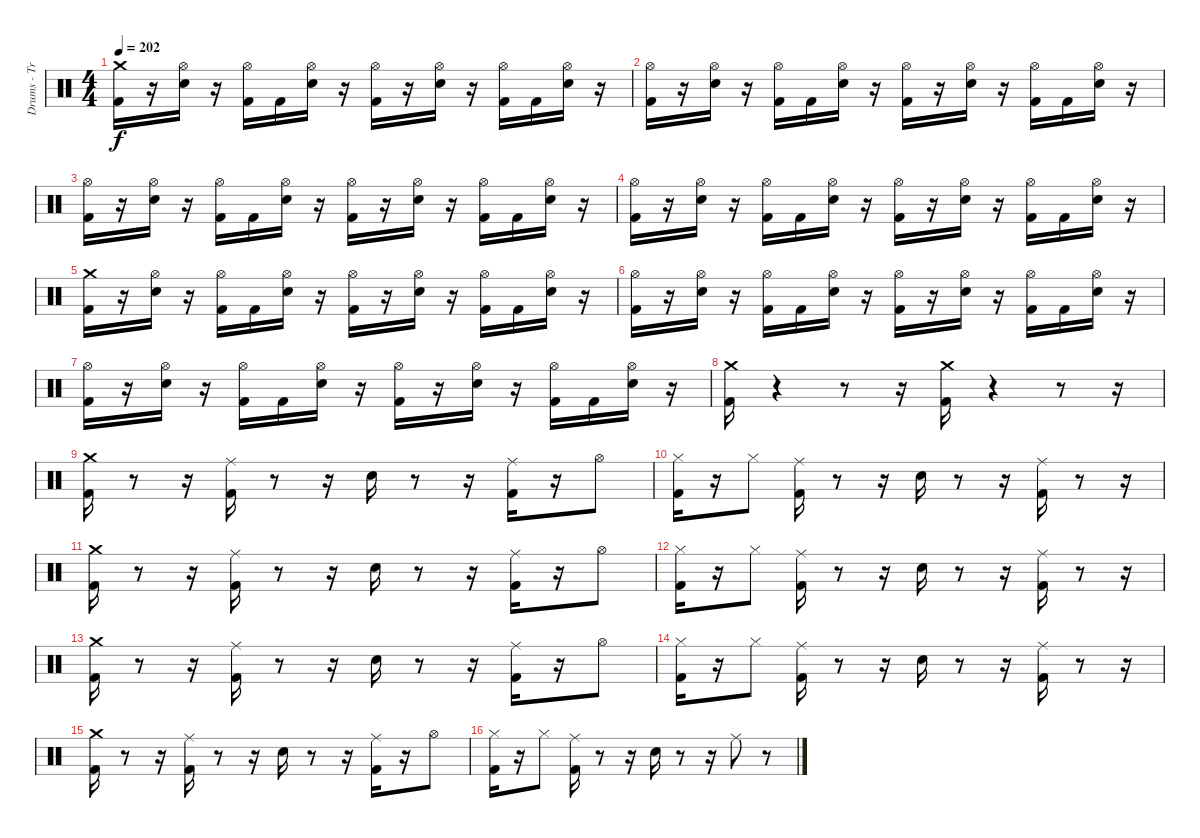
\track ("Drums - Travis Barker" "Drums - Tr") {instrument percussion}
\staff {score}
\articulation defaults
\ts (4 4)
\tempo 202
\clef neutral
\ks c
("Kick (hit) 2" "Crash medium (hit)").16{dy f} r.16 ("Electric Snare (hit)" "Hi-Hat (open)").16 r.16 ("Kick (hit) 2" "Hi-Hat (open)").16 "Kick (hit) 2".16 ("Electric Snare (hit)" "Hi-Hat (open)").16 r.16 ("Kick (hit) 2" "Hi-Hat (open)").16 r.16 ("Electric Snare (hit)" "Hi-Hat (open)").16 r.16 ("Kick (hit) 2" "Hi-Hat (open)").16 "Kick (hit) 2".16 ("Electric Snare (hit)" "Hi-Hat (open)").16 r.16 |
("Kick (hit) 2" "Hi-Hat (open)").16 r.16 ("Electric Snare (hit)" "Hi-Hat (open)").16 r.16 ("Kick (hit) 2" "Hi-Hat (open)").16 "Kick (hit) 2".16 ("Electric Snare (hit)" "Hi-Hat (open)").16 r.16 ("Kick (hit) 2" "Hi-Hat (open)").16 r.16 ("Electric Snare (hit)" "Hi-Hat (open)").16 r.16 ("Kick (hit) 2" "Hi-Hat (open)").16 "Kick (hit) 2".16 ("Electric Snare (hit)" "Hi-Hat (open)").16 r.16 |
("Kick (hit) 2" "Hi-Hat (open)").16 r.16 ("Electric Snare (hit)" "Hi-Hat (open)").16 r.16 ("Kick (hit) 2" "Hi-Hat (open)").16 "Kick (hit) 2".16 ("Electric Snare (hit)" "Hi-Hat (open)").16 r.16 ("Kick (hit) 2" "Hi-Hat (open)").16 r.16 ("Electric Snare (hit)" "Hi-Hat (open)").16 r.16 ("Kick (hit) 2" "Hi-Hat (open)").16 "Kick (hit) 2".16 ("Electric Snare (hit)" "Hi-Hat (open)").16 r.16 |
("Kick (hit) 2" "Hi-Hat (open)").16 r.16 ("Electric Snare (hit)" "Hi-Hat (open)").16 r.16 ("Kick (hit) 2" "Hi-Hat (open)").16 "Kick (hit) 2".16 ("Electric Snare (hit)" "Hi-Hat (open)").16 r.16 ("Kick (hit) 2" "Hi-Hat (open)").16 r.16 ("Electric Snare (hit)" "Hi-Hat (open)").16 r.16 ("Kick (hit) 2" "Hi-Hat (open)").16 "Kick (hit) 2".16 ("Electric Snare (hit)" "Hi-Hat (open)").16 r.16 |
("Kick (hit) 2" "Crash medium (hit)").16 r.16 ("Electric Snare (hit)" "Hi-Hat (open)").16 r.16 ("Kick (hit) 2" "Hi-Hat (open)").16 "Kick (hit) 2".16 ("Electric Snare (hit)" "Hi-Hat (open)").16 r.16 ("Kick (hit) 2" "Hi-Hat (open)").16 r.16 ("Electric Snare (hit)" "Hi-Hat (open)").16 r.16 ("Kick (hit) 2" "Hi-Hat (open)").16 "Kick (hit) 2".16 ("Electric Snare (hit)" "Hi-Hat (open)").16 r.16 |
("Kick (hit) 2" "Hi-Hat (open)").16 r.16 ("Electric Snare (hit)" "Hi-Hat (open)").16 r.16 ("Kick (hit) 2" "Hi-Hat (open)").16 "Kick (hit) 2".16 ("Electric Snare (hit)" "Hi-Hat (open)").16 r.16 ("Kick (hit) 2" "Hi-Hat (open)").16 r.16 ("Electric Snare (hit)" "Hi-Hat (open)").16 r.16 ("Kick (hit) 2" "Hi-Hat (open)").16 "Kick (hit) 2".16 ("Electric Snare (hit)" "Hi-Hat (open)").16 r.16 |
("Kick (hit) 2" "Hi-Hat (open)").16 r.16 ("Electric Snare (hit)" "Hi-Hat (open)").16 r.16 ("Kick (hit) 2" "Hi-Hat (open)").16 "Kick (hit) 2".16 ("Electric Snare (hit)" "Hi-Hat (open)").16 r.16 ("Kick (hit) 2" "Hi-Hat (open)").16 r.16 ("Electric Snare (hit)" "Hi-Hat (open)").16 r.16 ("Kick (hit) 2" "Hi-Hat (open)").16 "Kick (hit) 2".16 ("Electric Snare (hit)" "Hi-Hat (open)").16 r.16 |
("Kick (hit) 2" "Crash medium (hit)").16 r.4 r.8 r.16 ("Kick (hit) 2" "Crash medium (hit)").16 r.4 r.8 r.16 |
("Crash medium (hit)" "Kick (hit) 2").16 r.8 r.16 ("Ride (middle)" "Kick (hit) 2").16 r.8 r.16 "Electric Snare (hit)".16 r.8 r.16 ("Ride (middle)" "Kick (hit) 2").16 r.16 "Hi-Hat (open)".8 |
("Kick (hit) 2" "Hi-Hat (closed)").16 r.16 "Hi-Hat (closed)".8 ("Ride (middle)" "Kick (hit) 2").16 r.8 r.16 "Electric Snare (hit)".16 r.8 r.16 ("Ride (middle)" "Kick (hit) 2").16 r.8 r.16 |
("Crash medium (hit)" "Kick (hit) 2").16 r.8 r.16 ("Ride (middle)" "Kick (hit) 2").16 r.8 r.16 "Electric Snare (hit)".16 r.8 r.16 ("Ride (middle)" "Kick (hit) 2").16 r.16 "Hi-Hat (open)".8 |
("Kick (hit) 2" "Hi-Hat (closed)").16 r.16 "Hi-Hat (closed)".8 ("Ride (middle)" "Kick (hit) 2").16 r.8 r.16 "Electric Snare (hit)".16 r.8 r.16 ("Ride (middle)" "Kick (hit) 2").16 r.8 r.16 |
("Crash medium (hit)" "Kick (hit) 2").16 r.8 r.16 ("Ride (middle)" "Kick (hit) 2").16 r.8 r.16 "Electric Snare (hit)".16 r.8 r.16 ("Ride (middle)" "Kick (hit) 2").16 r.16 "Hi-Hat (open)".8 |
("Kick (hit) 2" "Hi-Hat (closed)").16 r.16 "Hi-Hat (closed)".8 ("Ride (middle)" "Kick (hit) 2").16 r.8 r.16 "Electric Snare (hit)".16 r.8 r.16 ("Ride (middle)" "Kick (hit) 2").16 r.8 r.16 |
("Crash medium (hit)" "Kick (hit) 2").16 r.8 r.16 ("Ride (middle)" "Kick (hit) 2").16 r.8 r.16 "Electric Snare (hit)".16 r.8 r.16 ("Ride (middle)" "Kick (hit) 2").16 r.16 "Hi-Hat (open)".8 |
("Kick (hit) 2" "Hi-Hat (closed)").16 r.16 "Hi-Hat (closed)".8 ("Ride (middle)" "Kick (hit) 2").16 r.8 r.16 "Electric Snare (hit)".16 r.8 r.16 "Ride (middle)".8 r.8
